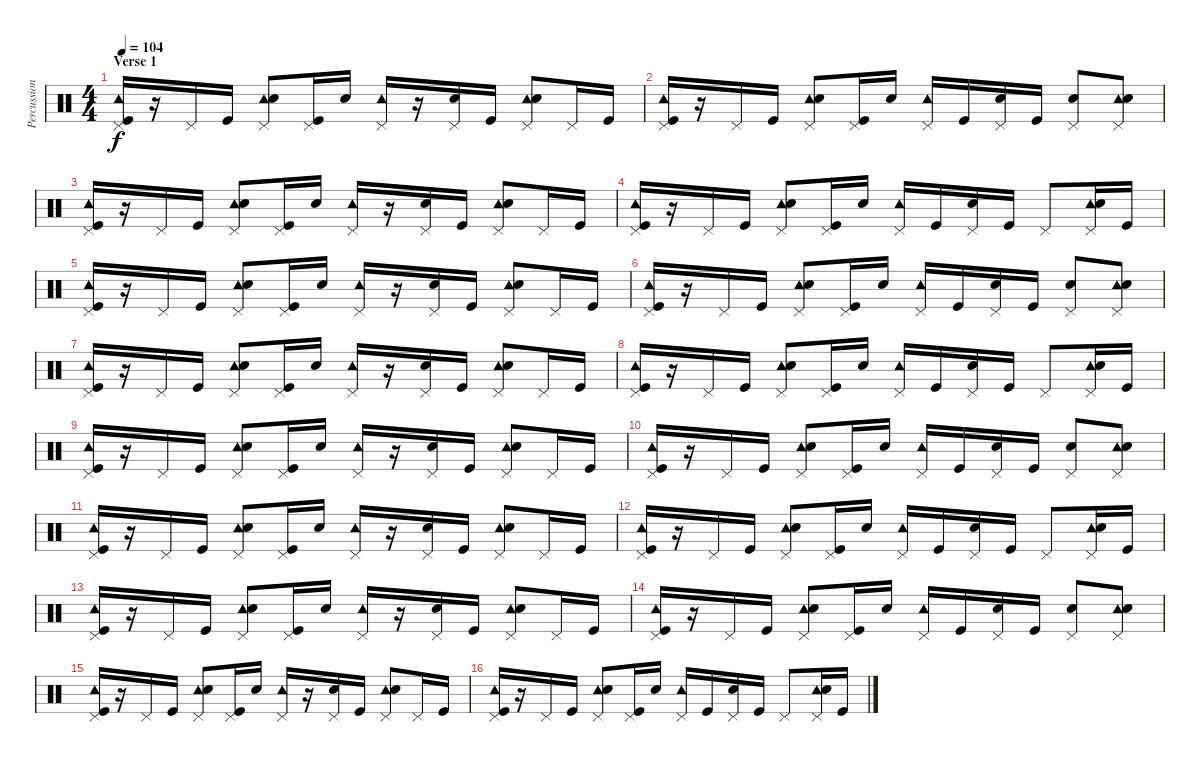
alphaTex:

\track ("Percussion" "Percussion") {instrument percussion}
\staff {score}
\articulation defaults
\ts (4 4)
\section ("" "Verse 1")
\tempo 104
\clef neutral
\ks c
("Tambourine (hit)" "Pedal Hi-Hat (hit)" "Kick (hit)").16{dy f} r.16 "Pedal Hi-Hat (hit)".16 "Kick (hit)".16 ("Tambourine (hit)" "Pedal Hi-Hat (hit)" "Snare (hit) 2").8 ("Pedal Hi-Hat (hit)" "Kick (hit)").16 "Snare (hit) 2".16 ("Tambourine (hit)" "Pedal Hi-Hat (hit)").16 r.16 ("Pedal Hi-Hat (hit)" "Snare (hit) 2").16 "Kick (hit)".16 ("Tambourine (hit)" "Pedal Hi-Hat (hit)" "Snare (hit) 2").8 "Pedal Hi-Hat (hit)".16 "Kick (hit)".16 |
("Tambourine (hit)" "Pedal Hi-Hat (hit)" "Kick (hit)").16 r.16 "Pedal Hi-Hat (hit)".16 "Kick (hit)".16 ("Tambourine (hit)" "Pedal Hi-Hat (hit)" "Snare (hit) 2").8 ("Pedal Hi-Hat (hit)" "Kick (hit)").16 "Snare (hit) 2".16 ("Tambourine (hit)" "Pedal Hi-Hat (hit)").16 "Kick (hit)".16 ("Pedal Hi-Hat (hit)" "Snare (hit) 2").16 "Kick (hit)".16 ("Pedal Hi-Hat (hit)" "Snare (hit) 2").8 ("Tambourine (hit)" "Pedal Hi-Hat (hit)" "Snare (hit) 2").8 |
("Tambourine (hit)" "Pedal Hi-Hat (hit)" "Kick (hit)").16 r.16 "Pedal Hi-Hat (hit)".16 "Kick (hit)".16 ("Tambourine (hit)" "Pedal Hi-Hat (hit)" "Snare (hit) 2").8 ("Pedal Hi-Hat (hit)" "Kick (hit)").16 "Snare (hit) 2".16 ("Tambourine (hit)" "Pedal Hi-Hat (hit)").16 r.16 ("Pedal Hi-Hat (hit)" "Snare (hit) 2").16 "Kick (hit)".16 ("Tambourine (hit)" "Pedal Hi-Hat (hit)" "Snare (hit) 2").8 "Pedal Hi-Hat (hit)".16 "Kick (hit)".16 |
("Tambourine (hit)" "Pedal Hi-Hat (hit)" "Kick (hit)").16 r.16 "Pedal Hi-Hat (hit)".16 "Kick (hit)".16 ("Tambourine (hit)" "Pedal Hi-Hat (hit)" "Snare (hit) 2").8 ("Pedal Hi-Hat (hit)" "Kick (hit)").16 "Snare (hit) 2".16 ("Tambourine (hit)" "Pedal Hi-Hat (hit)").16 "Kick (hit)".16 ("Pedal Hi-Hat (hit)" "Snare (hit) 2").16 "Kick (hit)".16 "Pedal Hi-Hat (hit)".8 ("Tambourine (hit)" "Pedal Hi-Hat (hit)" "Snare (hit) 2").16 "Kick (hit)".16 |
("Tambourine (hit)" "Pedal Hi-Hat (hit)" "Kick (hit)").16 r.16 "Pedal Hi-Hat (hit)".16 "Kick (hit)".16 ("Tambourine (hit)" "Pedal Hi-Hat (hit)" "Snare (hit) 2").8 ("Pedal Hi-Hat (hit)" "Kick (hit)").16 "Snare (hit) 2".16 ("Tambourine (hit)" "Pedal Hi-Hat (hit)").16 r.16 ("Pedal Hi-Hat (hit)" "Snare (hit) 2").16 "Kick (hit)".16 ("Tambourine (hit)" "Pedal Hi-Hat (hit)" "Snare (hit) 2").8 "Pedal Hi-Hat (hit)".16 "Kick (hit)".16 |
("Tambourine (hit)" "Pedal Hi-Hat (hit)" "Kick (hit)").16 r.16 "Pedal Hi-Hat (hit)".16 "Kick (hit)".16 ("Tambourine (hit)" "Pedal Hi-Hat (hit)" "Snare (hit) 2").8 ("Pedal Hi-Hat (hit)" "Kick (hit)").16 "Snare (hit) 2".16 ("Tambourine (hit)" "Pedal Hi-Hat (hit)").16 "Kick (hit)".16 ("Pedal Hi-Hat (hit)" "Snare (hit) 2").16 "Kick (hit)".16 ("Pedal Hi-Hat (hit)" "Snare (hit) 2").8 ("Tambourine (hit)" "Pedal Hi-Hat (hit)" "Snare (hit) 2").8 |
("Tambourine (hit)" "Pedal Hi-Hat (hit)" "Kick (hit)").16 r.16 "Pedal Hi-Hat (hit)".16 "Kick (hit)".16 ("Tambourine (hit)" "Pedal Hi-Hat (hit)" "Snare (hit) 2").8 ("Pedal Hi-Hat (hit)" "Kick (hit)").16 "Snare (hit) 2".16 ("Tambourine (hit)" "Pedal Hi-Hat (hit)").16 r.16 ("Pedal Hi-Hat (hit)" "Snare (hit) 2").16 "Kick (hit)".16 ("Tambourine (hit)" "Pedal Hi-Hat (hit)" "Snare (hit) 2").8 "Pedal Hi-Hat (hit)".16 "Kick (hit)".16 |
("Tambourine (hit)" "Pedal Hi-Hat (hit)" "Kick (hit)").16 r.16 "Pedal Hi-Hat (hit)".16 "Kick (hit)".16 ("Tambourine (hit)" "Pedal Hi-Hat (hit)" "Snare (hit) 2").8 ("Pedal Hi-Hat (hit)" "Kick (hit)").16 "Snare (hit) 2".16 ("Tambourine (hit)" "Pedal Hi-Hat (hit)").16 "Kick (hit)".16 ("Pedal Hi-Hat (hit)" "Snare (hit) 2").16 "Kick (hit)".16 "Pedal Hi-Hat (hit)".8 ("Tambourine (hit)" "Pedal Hi-Hat (hit)" "Snare (hit) 2").16 "Kick (hit)".16 |
("Tambourine (hit)" "Pedal Hi-Hat (hit)" "Kick (hit)").16 r.16 "Pedal Hi-Hat (hit)".16 "Kick (hit)".16 ("Tambourine (hit)" "Pedal Hi-Hat (hit)" "Snare (hit) 2").8 ("Pedal Hi-Hat (hit)" "Kick (hit)").16 "Snare (hit) 2".16 ("Tambourine (hit)" "Pedal Hi-Hat (hit)").16 r.16 ("Pedal Hi-Hat (hit)" "Snare (hit) 2").16 "Kick (hit)".16 ("Tambourine (hit)" "Pedal Hi-Hat (hit)" "Snare (hit) 2").8 "Pedal Hi-Hat (hit)".16 "Kick (hit)".16 |
("Tambourine (hit)" "Pedal Hi-Hat (hit)" "Kick (hit)").16 r.16 "Pedal Hi-Hat (hit)".16 "Kick (hit)".16 ("Tambourine (hit)" "Pedal Hi-Hat (hit)" "Snare (hit) 2").8 ("Pedal Hi-Hat (hit)" "Kick (hit)").16 "Snare (hit) 2".16 ("Tambourine (hit)" "Pedal Hi-Hat (hit)").16 "Kick (hit)".16 ("Pedal Hi-Hat (hit)" "Snare (hit) 2").16 "Kick (hit)".16 ("Pedal Hi-Hat (hit)" "Snare (hit) 2").8 ("Tambourine (hit)" "Pedal Hi-Hat (hit)" "Snare (hit) 2").8 |
("Tambourine (hit)" "Pedal Hi-Hat (hit)" "Kick (hit)").16 r.16 "Pedal Hi-Hat (hit)".16 "Kick (hit)".16 ("Tambourine (hit)" "Pedal Hi-Hat (hit)" "Snare (hit) 2").8 ("Pedal Hi-Hat (hit)" "Kick (hit)").16 "Snare (hit) 2".16 ("Tambourine (hit)" "Pedal Hi-Hat (hit)").16 r.16 ("Pedal Hi-Hat (hit)" "Snare (hit) 2").16 "Kick (hit)".16 ("Tambourine (hit)" "Pedal Hi-Hat (hit)" "Snare (hit) 2").8 "Pedal Hi-Hat (hit)".16 "Kick (hit)".16 |
("Tambourine (hit)" "Pedal Hi-Hat (hit)" "Kick (hit)").16 r.16 "Pedal Hi-Hat (hit)".16 "Kick (hit)".16 ("Tambourine (hit)" "Pedal Hi-Hat (hit)" "Snare (hit) 2").8 ("Pedal Hi-Hat (hit)" "Kick (hit)").16 "Snare (hit) 2".16 ("Tambourine (hit)" "Pedal Hi-Hat (hit)").16 "Kick (hit)".16 ("Pedal Hi-Hat (hit)" "Snare (hit) 2").16 "Kick (hit)".16 "Pedal Hi-Hat (hit)".8 ("Tambourine (hit)" "Pedal Hi-Hat (hit)" "Snare (hit) 2").16 "Kick (hit)".16 |
("Tambourine (hit)" "Pedal Hi-Hat (hit)" "Kick (hit)").16 r.16 "Pedal Hi-Hat (hit)".16 "Kick (hit)".16 ("Tambourine (hit)" "Pedal Hi-Hat (hit)" "Snare (hit) 2").8 ("Pedal Hi-Hat (hit)" "Kick (hit)").16 "Snare (hit) 2".16 ("Tambourine (hit)" "Pedal Hi-Hat (hit)").16 r.16 ("Pedal Hi-Hat (hit)" "Snare (hit) 2").16 "Kick (hit)".16 ("Tambourine (hit)" "Pedal Hi-Hat (hit)" "Snare (hit) 2").8 "Pedal Hi-Hat (hit)".16 "Kick (hit)".16 |
("Tambourine (hit)" "Pedal Hi-Hat (hit)" "Kick (hit)").16 r.16 "Pedal Hi-Hat (hit)".16 "Kick (hit)".16 ("Tambourine (hit)" "Pedal Hi-Hat (hit)" "Snare (hit) 2").8 ("Pedal Hi-Hat (hit)" "Kick (hit)").16 "Snare (hit) 2".16 ("Tambourine (hit)" "Pedal Hi-Hat (hit)").16 "Kick (hit)".16 ("Pedal Hi-Hat (hit)" "Snare (hit) 2").16 "Kick (hit)".16 ("Pedal Hi-Hat (hit)" "Snare (hit) 2").8 ("Tambourine (hit)" "Pedal Hi-Hat (hit)" "Snare (hit) 2").8 |
("Tambourine (hit)" "Pedal Hi-Hat (hit)" "Kick (hit)").16 r.16 "Pedal Hi-Hat (hit)".16 "Kick (hit)".16 ("Tambourine (hit)" "Pedal Hi-Hat (hit)" "Snare (hit) 2").8 ("Pedal Hi-Hat (hit)" "Kick (hit)").16 "Snare (hit) 2".16 ("Tambourine (hit)" "Pedal Hi-Hat (hit)").16 r.16 ("Pedal Hi-Hat (hit)" "Snare (hit) 2").16 "Kick (hit)".16 ("Tambourine (hit)" "Pedal Hi-Hat (hit)" "Snare (hit) 2").8 "Pedal Hi-Hat (hit)".16 "Kick (hit)".16 |
("Tambourine (hit)" "Pedal Hi-Hat (hit)" "Kick (hit)").16 r.16 "Pedal Hi-Hat (hit)".16 "Kick (hit)".16 ("Tambourine (hit)" "Pedal Hi-Hat (hit)" "Snare (hit) 2").8 ("Pedal Hi-Hat (hit)" "Kick (hit)").16 "Snare (hit) 2".16 ("Tambourine (hit)" "Pedal Hi-Hat (hit)").16 "Kick (hit)".16 ("Pedal Hi-Hat (hit)" "Snare (hit) 2").16 "Kick (hit)".16 "Pedal Hi-Hat (hit)".8 ("Tambourine (hit)" "Pedal Hi-Hat (hit)" "Snare (hit) 2").16 "Kick (hit)".16
